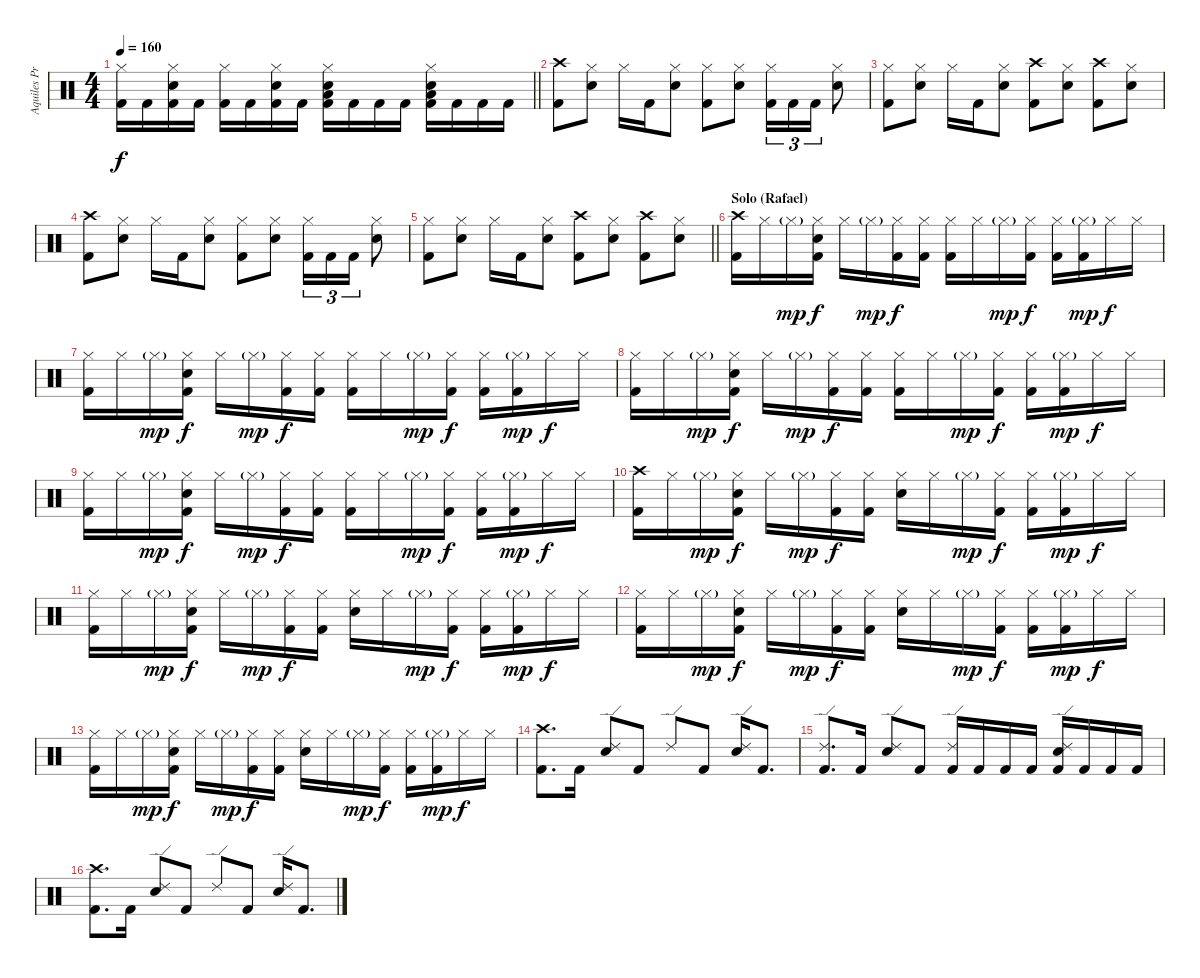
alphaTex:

\track ("Aquiles Priester" "Aquiles Pr") {instrument percussion}
\staff {score}
\articulation defaults
\ts (4 4)
\tempo 160
\clef neutral
\barLineRight lightlight
\ks c
("Hi-Hat (closed)" "Kick (hit) 2").16{dy f} "Kick (hit) 2".16 ("Hi-Hat (closed)" "Electric Snare (hit)" "Kick (hit) 2").16 "Kick (hit) 2".16 ("Hi-Hat (closed)" "Kick (hit) 2").16 "Kick (hit) 2".16 ("Hi-Hat (closed)" "Electric Snare (hit)" "Kick (hit) 2").16 "Kick (hit) 2".16 ("Hi-Hat (closed)" "Electric Snare (hit)" "Low Tom (hit)" "Kick (hit) 2").16 "Kick (hit) 2".16 "Kick (hit) 2".16 "Kick (hit) 2".16 ("Hi-Hat (closed)" "Electric Snare (hit)" "Low Tom (hit)" "Kick (hit) 2").16 "Kick (hit) 2".16 "Kick (hit) 2".16 "Kick (hit) 2".16 |
("Crash high (hit)" "Kick (hit) 2").8 ("Hi-Hat (closed)" "Electric Snare (hit)").8 "Hi-Hat (closed)".16 "Kick (hit) 2".16 ("Hi-Hat (closed)" "Electric Snare (hit)").8 ("Hi-Hat (closed)" "Kick (hit) 2").8 ("Hi-Hat (closed)" "Electric Snare (hit)").8 ("Hi-Hat (closed)" "Kick (hit) 2").16{tu (3 2)} "Kick (hit) 2".16{tu (3 2)} "Kick (hit) 2".16{tu (3 2)} ("Hi-Hat (closed)" "Electric Snare (hit)").8 |
("Hi-Hat (closed)" "Kick (hit) 2").8 ("Hi-Hat (closed)" "Electric Snare (hit)").8 "Hi-Hat (closed)".16 "Kick (hit) 2".16 ("Hi-Hat (closed)" "Electric Snare (hit)").8 ("Crash high (hit)" "Kick (hit) 2").8 ("Hi-Hat (closed)" "Electric Snare (hit)").8 ("Crash high (hit)" "Kick (hit) 2").8 ("Hi-Hat (closed)" "Electric Snare (hit)").8 |
("Crash high (hit)" "Kick (hit) 2").8 ("Hi-Hat (closed)" "Electric Snare (hit)").8 "Hi-Hat (closed)".16 "Kick (hit) 2".16 ("Hi-Hat (closed)" "Electric Snare (hit)").8 ("Hi-Hat (closed)" "Kick (hit) 2").8 ("Hi-Hat (closed)" "Electric Snare (hit)").8 ("Hi-Hat (closed)" "Kick (hit) 2").16{tu (3 2)} "Kick (hit) 2".16{tu (3 2)} "Kick (hit) 2".16{tu (3 2)} ("Hi-Hat (closed)" "Electric Snare (hit)").8 |
\barLineRight lightlight
("Hi-Hat (closed)" "Kick (hit) 2").8 ("Hi-Hat (closed)" "Electric Snare (hit)").8 "Hi-Hat (closed)".16 "Kick (hit) 2".16 ("Hi-Hat (closed)" "Electric Snare (hit)").8 ("Crash high (hit)" "Kick (hit) 2").8 ("Hi-Hat (closed)" "Electric Snare (hit)").8 ("Crash high (hit)" "Kick (hit) 2").8 ("Hi-Hat (closed)" "Electric Snare (hit)").8 |
\section ("" "Solo (Rafael)")
("Crash high (hit)" "Kick (hit) 2").16 "Hi-Hat (closed)".16 "Hi-Hat (closed)"{g}.16{dy mp} ("Hi-Hat (closed)" "Electric Snare (hit)" "Kick (hit) 2").16{dy f} "Hi-Hat (closed)".16 "Hi-Hat (closed)"{g}.16{dy mp} ("Hi-Hat (closed)" "Kick (hit) 2").16{dy f} ("Hi-Hat (closed)" "Kick (hit) 2").16 ("Hi-Hat (closed)" "Kick (hit) 2").16 "Hi-Hat (closed)".16 "Hi-Hat (closed)"{g}.16{dy mp} ("Hi-Hat (closed)" "Kick (hit) 2").16{dy f} ("Hi-Hat (closed)" "Kick (hit) 2").16 ("Hi-Hat (closed)"{g} "Kick (hit) 2").16{dy mp} "Hi-Hat (closed)".16{dy f} "Hi-Hat (closed)".16 |
("Hi-Hat (closed)" "Kick (hit) 2").16 "Hi-Hat (closed)".16 "Hi-Hat (closed)"{g}.16{dy mp} ("Hi-Hat (closed)" "Electric Snare (hit)" "Kick (hit) 2").16{dy f} "Hi-Hat (closed)".16 "Hi-Hat (closed)"{g}.16{dy mp} ("Hi-Hat (closed)" "Kick (hit) 2").16{dy f} ("Hi-Hat (closed)" "Kick (hit) 2").16 ("Hi-Hat (closed)" "Kick (hit) 2").16 "Hi-Hat (closed)".16 "Hi-Hat (closed)"{g}.16{dy mp} ("Hi-Hat (closed)" "Kick (hit) 2").16{dy f} ("Hi-Hat (closed)" "Kick (hit) 2").16 ("Hi-Hat (closed)"{g} "Kick (hit) 2").16{dy mp} "Hi-Hat (closed)".16{dy f} "Hi-Hat (closed)".16 |
("Hi-Hat (closed)" "Kick (hit) 2").16 "Hi-Hat (closed)".16 "Hi-Hat (closed)"{g}.16{dy mp} ("Hi-Hat (closed)" "Electric Snare (hit)" "Kick (hit) 2").16{dy f} "Hi-Hat (closed)".16 "Hi-Hat (closed)"{g}.16{dy mp} ("Hi-Hat (closed)" "Kick (hit) 2").16{dy f} ("Hi-Hat (closed)" "Kick (hit) 2").16 ("Hi-Hat (closed)" "Kick (hit) 2").16 "Hi-Hat (closed)".16 "Hi-Hat (closed)"{g}.16{dy mp} ("Hi-Hat (closed)" "Kick (hit) 2").16{dy f} ("Hi-Hat (closed)" "Kick (hit) 2").16 ("Hi-Hat (closed)"{g} "Kick (hit) 2").16{dy mp} "Hi-Hat (closed)".16{dy f} "Hi-Hat (closed)".16 |
("Hi-Hat (closed)" "Kick (hit) 2").16 "Hi-Hat (closed)".16 "Hi-Hat (closed)"{g}.16{dy mp} ("Hi-Hat (closed)" "Electric Snare (hit)" "Kick (hit) 2").16{dy f} "Hi-Hat (closed)".16 "Hi-Hat (closed)"{g}.16{dy mp} ("Hi-Hat (closed)" "Kick (hit) 2").16{dy f} ("Hi-Hat (closed)" "Kick (hit) 2").16 ("Hi-Hat (closed)" "Kick (hit) 2").16 "Hi-Hat (closed)".16 "Hi-Hat (closed)"{g}.16{dy mp} ("Hi-Hat (closed)" "Kick (hit) 2").16{dy f} ("Hi-Hat (closed)" "Kick (hit) 2").16 ("Hi-Hat (closed)"{g} "Kick (hit) 2").16{dy mp} "Hi-Hat (closed)".16{dy f} "Hi-Hat (closed)".16 |
("Crash high (hit)" "Kick (hit) 2").16 "Hi-Hat (closed)".16 "Hi-Hat (closed)"{g}.16{dy mp} ("Hi-Hat (closed)" "Electric Snare (hit)" "Kick (hit) 2").16{dy f} "Hi-Hat (closed)".16 "Hi-Hat (closed)"{g}.16{dy mp} ("Hi-Hat (closed)" "Kick (hit) 2").16{dy f} ("Hi-Hat (closed)" "Kick (hit) 2").16 ("Hi-Hat (closed)" "Electric Snare (hit)").16 "Hi-Hat (closed)".16 "Hi-Hat (closed)"{g}.16{dy mp} ("Hi-Hat (closed)" "Kick (hit) 2").16{dy f} ("Hi-Hat (closed)" "Kick (hit) 2").16 ("Hi-Hat (closed)"{g} "Kick (hit) 2").16{dy mp} "Hi-Hat (closed)".16{dy f} "Hi-Hat (closed)".16 |
("Hi-Hat (closed)" "Kick (hit) 2").16 "Hi-Hat (closed)".16 "Hi-Hat (closed)"{g}.16{dy mp} ("Hi-Hat (closed)" "Electric Snare (hit)" "Kick (hit) 2").16{dy f} "Hi-Hat (closed)".16 "Hi-Hat (closed)"{g}.16{dy mp} ("Hi-Hat (closed)" "Kick (hit) 2").16{dy f} ("Hi-Hat (closed)" "Kick (hit) 2").16 ("Hi-Hat (closed)" "Electric Snare (hit)").16 "Hi-Hat (closed)".16 "Hi-Hat (closed)"{g}.16{dy mp} ("Hi-Hat (closed)" "Kick (hit) 2").16{dy f} ("Hi-Hat (closed)" "Kick (hit) 2").16 ("Hi-Hat (closed)"{g} "Kick (hit) 2").16{dy mp} "Hi-Hat (closed)".16{dy f} "Hi-Hat (closed)".16 |
("Hi-Hat (closed)" "Kick (hit) 2").16 "Hi-Hat (closed)".16 "Hi-Hat (closed)"{g}.16{dy mp} ("Hi-Hat (closed)" "Electric Snare (hit)" "Kick (hit) 2").16{dy f} "Hi-Hat (closed)".16 "Hi-Hat (closed)"{g}.16{dy mp} ("Hi-Hat (closed)" "Kick (hit) 2").16{dy f} ("Hi-Hat (closed)" "Kick (hit) 2").16 ("Hi-Hat (closed)" "Electric Snare (hit)").16 "Hi-Hat (closed)".16 "Hi-Hat (closed)"{g}.16{dy mp} ("Hi-Hat (closed)" "Kick (hit) 2").16{dy f} ("Hi-Hat (closed)" "Kick (hit) 2").16 ("Hi-Hat (closed)"{g} "Kick (hit) 2").16{dy mp} "Hi-Hat (closed)".16{dy f} "Hi-Hat (closed)".16 |
("Hi-Hat (closed)" "Kick (hit) 2").16 "Hi-Hat (closed)".16 "Hi-Hat (closed)"{g}.16{dy mp} ("Hi-Hat (closed)" "Electric Snare (hit)" "Kick (hit) 2").16{dy f} "Hi-Hat (closed)".16 "Hi-Hat (closed)"{g}.16{dy mp} ("Hi-Hat (closed)" "Kick (hit) 2").16{dy f} ("Hi-Hat (closed)" "Kick (hit) 2").16 ("Hi-Hat (closed)" "Electric Snare (hit)").16 "Hi-Hat (closed)".16 "Hi-Hat (closed)"{g}.16{dy mp} ("Hi-Hat (closed)" "Kick (hit) 2").16{dy f} ("Hi-Hat (closed)" "Kick (hit) 2").16 ("Hi-Hat (closed)"{g} "Kick (hit) 2").16{dy mp} "Hi-Hat (closed)".16{dy f} "Hi-Hat (closed)".16 |
("Crash high (hit)" "Kick (hit) 2").8{d} "Kick (hit) 2".16 ("Ride (edge) 2" "Electric Snare (hit)").8 "Kick (hit) 2".8 "Ride (edge) 2".8 "Kick (hit) 2".8 ("Ride (edge) 2" "Electric Snare (hit)").16 "Kick (hit) 2".8{d} |
("Ride (edge) 2" "Kick (hit) 2").8{d} "Kick (hit) 2".16 ("Ride (edge) 2" "Electric Snare (hit)").8 "Kick (hit) 2".8 ("Ride (edge) 2" "Kick (hit) 2").16 "Kick (hit) 2".16 "Kick (hit) 2".16 "Kick (hit) 2".16 ("Ride (edge) 2" "Electric Snare (hit)" "Kick (hit) 2").16 "Kick (hit) 2".16 "Kick (hit) 2".16 "Kick (hit) 2".16 |
("Crash high (hit)" "Kick (hit) 2").8{d} "Kick (hit) 2".16 ("Ride (edge) 2" "Electric Snare (hit)").8 "Kick (hit) 2".8 "Ride (edge) 2".8 "Kick (hit) 2".8 ("Ride (edge) 2" "Electric Snare (hit)").16 "Kick (hit) 2".8{d}
